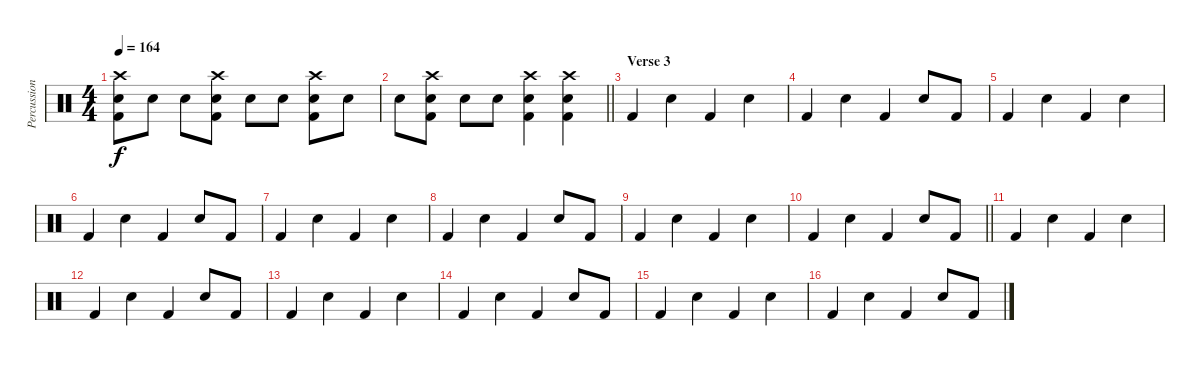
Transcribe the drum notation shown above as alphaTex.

\track ("Percussions" "Percussion") {instrument percussion}
\staff {score}
\articulation defaults
\ts (4 4)
\tempo 164
\clef neutral
\ks c
("Crash high (hit)" "Snare (hit) 2" "Kick (hit) 2").8{dy f} "Snare (hit) 2".8 "Snare (hit) 2".8 ("Crash high (hit)" "Snare (hit) 2" "Kick (hit) 2").8 "Snare (hit) 2".8 "Snare (hit) 2".8 ("Crash high (hit)" "Snare (hit) 2" "Kick (hit) 2").8 "Snare (hit) 2".8 |
\barLineRight lightlight "Snare (hit) 2".8
("Crash high (hit)" "Snare (hit) 2" "Kick (hit) 2").8 "Snare (hit) 2".8 "Snare (hit) 2".8 ("Crash high (hit)" "Snare (hit) 2" "Kick (hit) 2").4 ("Crash high (hit)" "Snare (hit) 2" "Kick (hit) 2").4 |
\section ("" "Verse 3")
"Kick (hit) 2".4 "Snare (hit) 2".4 "Kick (hit) 2".4 "Snare (hit) 2".4 |
"Kick (hit) 2".4 "Snare (hit) 2".4 "Kick (hit) 2".4 "Snare (hit) 2".8 "Kick (hit) 2".8 |
"Kick (hit) 2".4 "Snare (hit) 2".4 "Kick (hit) 2".4 "Snare (hit) 2".4 |
"Kick (hit) 2".4 "Snare (hit) 2".4 "Kick (hit) 2".4 "Snare (hit) 2".8 "Kick (hit) 2".8 |
"Kick (hit) 2".4 "Snare (hit) 2".4 "Kick (hit) 2".4 "Snare (hit) 2".4 |
"Kick (hit) 2".4 "Snare (hit) 2".4 "Kick (hit) 2".4 "Snare (hit) 2".8 "Kick (hit) 2".8 |
"Kick (hit) 2".4 "Snare (hit) 2".4 "Kick (hit) 2".4 "Snare (hit) 2".4 |
\barLineRight lightlight "Kick (hit) 2".4 "Snare (hit) 2".4 "Kick (hit) 2".4 "Snare (hit) 2".8 "Kick (hit) 2".8
|
"Kick (hit) 2".4 "Snare (hit) 2".4 "Kick (hit) 2".4 "Snare (hit) 2".4 |
"Kick (hit) 2".4 "Snare (hit) 2".4 "Kick (hit) 2".4 "Snare (hit) 2".8 "Kick (hit) 2".8 |
"Kick (hit) 2".4 "Snare (hit) 2".4 "Kick (hit) 2".4 "Snare (hit) 2".4 |
"Kick (hit) 2".4 "Snare (hit) 2".4 "Kick (hit) 2".4 "Snare (hit) 2".8 "Kick (hit) 2".8 |
"Kick (hit) 2".4 "Snare (hit) 2".4 "Kick (hit) 2".4 "Snare (hit) 2".4 |
"Kick (hit) 2".4 "Snare (hit) 2".4 "Kick (hit) 2".4 "Snare (hit) 2".8 "Kick (hit) 2".8
